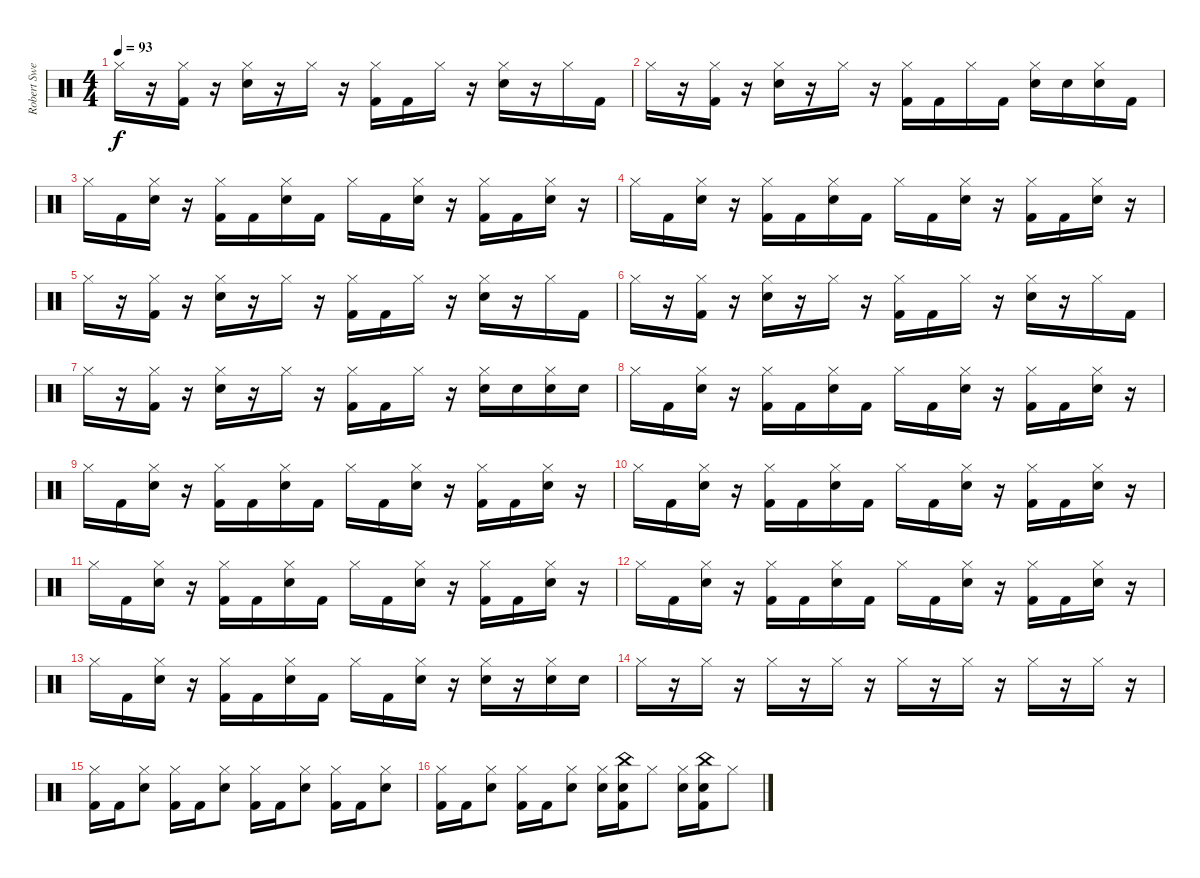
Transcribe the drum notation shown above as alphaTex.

\track ("Robert Sweet" "Robert Swe") {instrument percussion}
\staff {score}
\articulation defaults
\ts (4 4)
\tempo 93
\clef neutral
\ks c "Hi-Hat (closed)".16{dy f}
r.16 ("Hi-Hat (closed)" "Kick (hit) 2").16 r.16 ("Hi-Hat (closed)" "Snare (hit) 2").16 r.16 "Hi-Hat (closed)".16 r.16 ("Hi-Hat (closed)" "Kick (hit) 2").16 "Kick (hit) 2".16 "Hi-Hat (closed)".16 r.16 ("Hi-Hat (closed)" "Snare (hit) 2").16 r.16 "Hi-Hat (closed)".16 "Kick (hit) 2".16 |
"Hi-Hat (closed)".16 r.16 ("Hi-Hat (closed)" "Kick (hit) 2").16 r.16 ("Hi-Hat (closed)" "Snare (hit) 2").16 r.16 "Hi-Hat (closed)".16 r.16 ("Hi-Hat (closed)" "Kick (hit) 2").16 "Kick (hit) 2".16 "Hi-Hat (closed)".16 "Kick (hit) 2".16 ("Hi-Hat (closed)" "Snare (hit) 2").16 "Snare (hit) 2".16 ("Hi-Hat (closed)" "Snare (hit) 2").16 "Kick (hit) 2".16 |
"Hi-Hat (closed)".16 "Kick (hit) 2".16 ("Hi-Hat (closed)" "Snare (hit) 2").16 r.16 ("Hi-Hat (closed)" "Kick (hit) 2").16 "Kick (hit) 2".16 ("Hi-Hat (closed)" "Snare (hit) 2").16 "Kick (hit) 2".16 "Hi-Hat (closed)".16 "Kick (hit) 2".16 ("Hi-Hat (closed)" "Snare (hit) 2").16 r.16 ("Hi-Hat (closed)" "Kick (hit) 2").16 "Kick (hit) 2".16 ("Hi-Hat (closed)" "Snare (hit) 2").16 r.16 |
"Hi-Hat (closed)".16 "Kick (hit) 2".16 ("Hi-Hat (closed)" "Snare (hit) 2").16 r.16 ("Hi-Hat (closed)" "Kick (hit) 2").16 "Kick (hit) 2".16 ("Hi-Hat (closed)" "Snare (hit) 2").16 "Kick (hit) 2".16 "Hi-Hat (closed)".16 "Kick (hit) 2".16 ("Hi-Hat (closed)" "Snare (hit) 2").16 r.16 ("Hi-Hat (closed)" "Kick (hit) 2").16 "Kick (hit) 2".16 ("Hi-Hat (closed)" "Snare (hit) 2").16 r.16 |
"Hi-Hat (closed)".16 r.16 ("Hi-Hat (closed)" "Kick (hit) 2").16 r.16 ("Hi-Hat (closed)" "Snare (hit) 2").16 r.16 "Hi-Hat (closed)".16 r.16 ("Hi-Hat (closed)" "Kick (hit) 2").16 "Kick (hit) 2".16 "Hi-Hat (closed)".16 r.16 ("Hi-Hat (closed)" "Snare (hit) 2").16 r.16 "Hi-Hat (closed)".16 "Kick (hit) 2".16 |
"Hi-Hat (closed)".16 r.16 ("Hi-Hat (closed)" "Kick (hit) 2").16 r.16 ("Hi-Hat (closed)" "Snare (hit) 2").16 r.16 "Hi-Hat (closed)".16 r.16 ("Hi-Hat (closed)" "Kick (hit) 2").16 "Kick (hit) 2".16 "Hi-Hat (closed)".16 r.16 ("Hi-Hat (closed)" "Snare (hit) 2").16 r.16 "Hi-Hat (closed)".16 "Kick (hit) 2".16 |
"Hi-Hat (closed)".16 r.16 ("Hi-Hat (closed)" "Kick (hit) 2").16 r.16 ("Hi-Hat (closed)" "Snare (hit) 2").16 r.16 "Hi-Hat (closed)".16 r.16 ("Hi-Hat (closed)" "Kick (hit) 2").16 "Kick (hit) 2".16 "Hi-Hat (closed)".16 r.16 ("Hi-Hat (closed)" "Snare (hit) 2").16 "Snare (hit) 2".16 ("Hi-Hat (closed)" "Snare (hit) 2").16 "Snare (hit) 2".16 |
"Hi-Hat (closed)".16 "Kick (hit) 2".16 ("Hi-Hat (closed)" "Snare (hit) 2").16 r.16 ("Hi-Hat (closed)" "Kick (hit) 2").16 "Kick (hit) 2".16 ("Hi-Hat (closed)" "Snare (hit) 2").16 "Kick (hit) 2".16 "Hi-Hat (closed)".16 "Kick (hit) 2".16 ("Hi-Hat (closed)" "Snare (hit) 2").16 r.16 ("Hi-Hat (closed)" "Kick (hit) 2").16 "Kick (hit) 2".16 ("Hi-Hat (closed)" "Snare (hit) 2").16 r.16 |
"Hi-Hat (closed)".16 "Kick (hit) 2".16 ("Hi-Hat (closed)" "Snare (hit) 2").16 r.16 ("Hi-Hat (closed)" "Kick (hit) 2").16 "Kick (hit) 2".16 ("Hi-Hat (closed)" "Snare (hit) 2").16 "Kick (hit) 2".16 "Hi-Hat (closed)".16 "Kick (hit) 2".16 ("Hi-Hat (closed)" "Snare (hit) 2").16 r.16 ("Hi-Hat (closed)" "Kick (hit) 2").16 "Kick (hit) 2".16 ("Hi-Hat (closed)" "Snare (hit) 2").16 r.16 |
"Hi-Hat (closed)".16 "Kick (hit) 2".16 ("Hi-Hat (closed)" "Snare (hit) 2").16 r.16 ("Hi-Hat (closed)" "Kick (hit) 2").16 "Kick (hit) 2".16 ("Hi-Hat (closed)" "Snare (hit) 2").16 "Kick (hit) 2".16 "Hi-Hat (closed)".16 "Kick (hit) 2".16 ("Hi-Hat (closed)" "Snare (hit) 2").16 r.16 ("Hi-Hat (closed)" "Kick (hit) 2").16 "Kick (hit) 2".16 ("Hi-Hat (closed)" "Snare (hit) 2").16 r.16 |
"Hi-Hat (closed)".16 "Kick (hit) 2".16 ("Hi-Hat (closed)" "Snare (hit) 2").16 r.16 ("Hi-Hat (closed)" "Kick (hit) 2").16 "Kick (hit) 2".16 ("Hi-Hat (closed)" "Snare (hit) 2").16 "Kick (hit) 2".16 "Hi-Hat (closed)".16 "Kick (hit) 2".16 ("Hi-Hat (closed)" "Snare (hit) 2").16 r.16 ("Hi-Hat (closed)" "Kick (hit) 2").16 "Kick (hit) 2".16 ("Hi-Hat (closed)" "Snare (hit) 2").16 r.16 |
"Hi-Hat (closed)".16 "Kick (hit) 2".16 ("Hi-Hat (closed)" "Snare (hit) 2").16 r.16 ("Hi-Hat (closed)" "Kick (hit) 2").16 "Kick (hit) 2".16 ("Hi-Hat (closed)" "Snare (hit) 2").16 "Kick (hit) 2".16 "Hi-Hat (closed)".16 "Kick (hit) 2".16 ("Hi-Hat (closed)" "Snare (hit) 2").16 r.16 ("Hi-Hat (closed)" "Kick (hit) 2").16 "Kick (hit) 2".16 ("Hi-Hat (closed)" "Snare (hit) 2").16 r.16 |
"Hi-Hat (closed)".16 "Kick (hit) 2".16 ("Hi-Hat (closed)" "Snare (hit) 2").16 r.16 ("Hi-Hat (closed)" "Kick (hit) 2").16 "Kick (hit) 2".16 ("Hi-Hat (closed)" "Snare (hit) 2").16 "Kick (hit) 2".16 "Hi-Hat (closed)".16 "Kick (hit) 2".16 ("Hi-Hat (closed)" "Snare (hit) 2").16 r.16 ("Hi-Hat (closed)" "Snare (hit) 2").16 r.16 ("Hi-Hat (closed)" "Snare (hit) 2").16 "Snare (hit) 2".16 |
"Hi-Hat (closed)".16 r.16 "Hi-Hat (closed)".16 r.16 "Hi-Hat (closed)".16 r.16 "Hi-Hat (closed)".16 r.16 "Hi-Hat (closed)".16 r.16 "Hi-Hat (closed)".16 r.16 "Hi-Hat (closed)".16 r.16 "Hi-Hat (closed)".16 r.16 |
("Hi-Hat (closed)" "Kick (hit) 2").16 "Kick (hit) 2".16 ("Hi-Hat (closed)" "Snare (hit) 2").8 ("Hi-Hat (closed)" "Kick (hit) 2").16 "Kick (hit) 2".16 ("Hi-Hat (closed)" "Snare (hit) 2").8 ("Hi-Hat (closed)" "Kick (hit) 2").16 "Kick (hit) 2".16 ("Hi-Hat (closed)" "Snare (hit) 2").8 ("Hi-Hat (closed)" "Kick (hit) 2").16 "Kick (hit) 2".16 ("Hi-Hat (closed)" "Snare (hit) 2").8 |
("Hi-Hat (closed)" "Kick (hit) 2").16 "Kick (hit) 2".16 ("Hi-Hat (closed)" "Snare (hit) 2").8 ("Hi-Hat (closed)" "Kick (hit) 2").16 "Kick (hit) 2".16 ("Hi-Hat (closed)" "Snare (hit) 2").8 ("Hi-Hat (closed)" "Snare (hit) 2").16 ("Kick (hit) 2" "Snare (hit) 2" "China (hit)").16 "Hi-Hat (closed)".8 ("Hi-Hat (closed)" "Snare (hit) 2").16 ("Kick (hit) 2" "Snare (hit) 2" "China (hit)").16 "Hi-Hat (closed)".8
